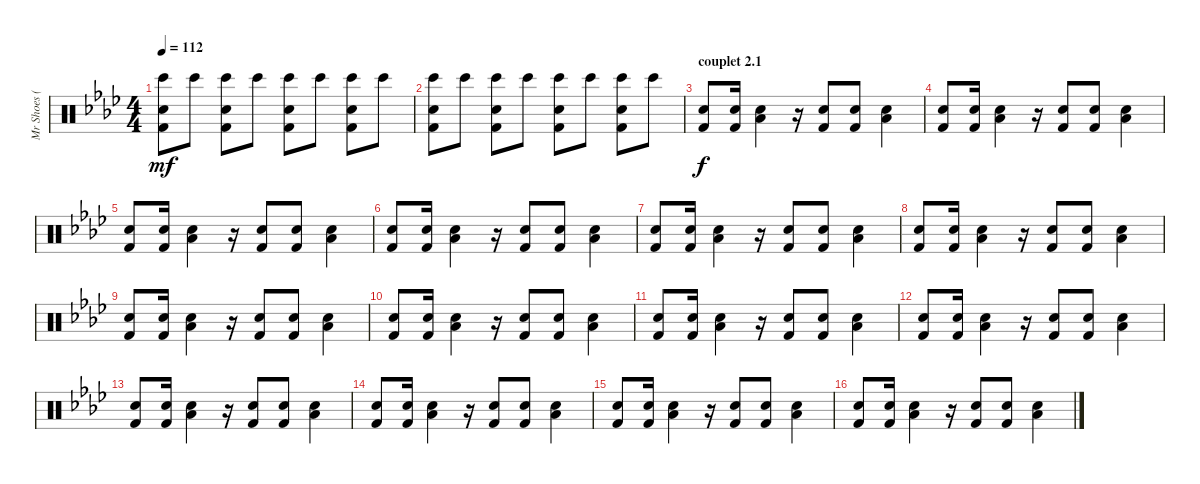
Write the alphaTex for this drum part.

\track ("Mr Shoes (batterie)" "Mr Shoes (") {instrument percussion}
\staff {score}
\articulation defaults
\ts (4 4)
\tempo 112
\clef neutral
\ks ab
("Snare (hit) 2" "Kick (hit) 2" "Bongo High (hit)").8{dy mf} "Bongo High (hit)".8 ("Snare (hit) 2" "Kick (hit) 2" "Bongo High (hit)").8 "Bongo High (hit)".8 ("Snare (hit) 2" "Kick (hit) 2" "Bongo High (hit)").8 "Bongo High (hit)".8 ("Snare (hit) 2" "Kick (hit) 2" "Bongo High (hit)").8 "Bongo High (hit)".8 |
("Snare (hit) 2" "Kick (hit) 2" "Bongo High (hit)").8 "Bongo High (hit)".8 ("Snare (hit) 2" "Kick (hit) 2" "Bongo High (hit)").8 "Bongo High (hit)".8 ("Snare (hit) 2" "Kick (hit) 2" "Bongo High (hit)").8 "Bongo High (hit)".8 ("Snare (hit) 2" "Kick (hit) 2" "Bongo High (hit)").8 "Bongo High (hit)".8 |
\section ("" "couplet 2.1")
("Snare (hit) 2" "Kick (hit) 2").8{dy f volume 14} ("Snare (hit) 2" "Kick (hit) 2").16 ("Snare (hit) 2" "Low Tom (hit)").4 r.16 ("Snare (hit) 2" "Kick (hit) 2").8 ("Snare (hit) 2" "Kick (hit) 2").8 ("Snare (hit) 2" "Low Tom (hit)").4 |
("Snare (hit) 2" "Kick (hit) 2").8 ("Snare (hit) 2" "Kick (hit) 2").16 ("Snare (hit) 2" "Low Tom (hit)").4 r.16 ("Snare (hit) 2" "Kick (hit) 2").8 ("Snare (hit) 2" "Kick (hit) 2").8 ("Snare (hit) 2" "Low Tom (hit)").4 |
("Snare (hit) 2" "Kick (hit) 2").8 ("Snare (hit) 2" "Kick (hit) 2").16 ("Snare (hit) 2" "Low Tom (hit)").4 r.16 ("Snare (hit) 2" "Kick (hit) 2").8 ("Snare (hit) 2" "Kick (hit) 2").8 ("Snare (hit) 2" "Low Tom (hit)").4 |
("Snare (hit) 2" "Kick (hit) 2").8 ("Snare (hit) 2" "Kick (hit) 2").16 ("Snare (hit) 2" "Low Tom (hit)").4 r.16 ("Snare (hit) 2" "Kick (hit) 2").8 ("Snare (hit) 2" "Kick (hit) 2").8 ("Snare (hit) 2" "Low Tom (hit)").4 |
("Snare (hit) 2" "Kick (hit) 2").8 ("Snare (hit) 2" "Kick (hit) 2").16 ("Snare (hit) 2" "Low Tom (hit)").4 r.16 ("Snare (hit) 2" "Kick (hit) 2").8 ("Snare (hit) 2" "Kick (hit) 2").8 ("Snare (hit) 2" "Low Tom (hit)").4 |
("Snare (hit) 2" "Kick (hit) 2").8 ("Snare (hit) 2" "Kick (hit) 2").16 ("Snare (hit) 2" "Low Tom (hit)").4 r.16 ("Snare (hit) 2" "Kick (hit) 2").8 ("Snare (hit) 2" "Kick (hit) 2").8 ("Snare (hit) 2" "Low Tom (hit)").4 |
("Snare (hit) 2" "Kick (hit) 2").8 ("Snare (hit) 2" "Kick (hit) 2").16 ("Snare (hit) 2" "Low Tom (hit)").4 r.16 ("Snare (hit) 2" "Kick (hit) 2").8 ("Snare (hit) 2" "Kick (hit) 2").8 ("Snare (hit) 2" "Low Tom (hit)").4 |
("Snare (hit) 2" "Kick (hit) 2").8 ("Snare (hit) 2" "Kick (hit) 2").16 ("Snare (hit) 2" "Low Tom (hit)").4 r.16 ("Snare (hit) 2" "Kick (hit) 2").8 ("Snare (hit) 2" "Kick (hit) 2").8 ("Snare (hit) 2" "Low Tom (hit)").4 |
("Snare (hit) 2" "Kick (hit) 2").8 ("Snare (hit) 2" "Kick (hit) 2").16 ("Snare (hit) 2" "Low Tom (hit)").4 r.16 ("Snare (hit) 2" "Kick (hit) 2").8 ("Snare (hit) 2" "Kick (hit) 2").8 ("Snare (hit) 2" "Low Tom (hit)").4 |
("Snare (hit) 2" "Kick (hit) 2").8 ("Snare (hit) 2" "Kick (hit) 2").16 ("Snare (hit) 2" "Low Tom (hit)").4 r.16 ("Snare (hit) 2" "Kick (hit) 2").8 ("Snare (hit) 2" "Kick (hit) 2").8 ("Snare (hit) 2" "Low Tom (hit)").4 |
("Snare (hit) 2" "Kick (hit) 2").8 ("Snare (hit) 2" "Kick (hit) 2").16 ("Snare (hit) 2" "Low Tom (hit)").4 r.16 ("Snare (hit) 2" "Kick (hit) 2").8 ("Snare (hit) 2" "Kick (hit) 2").8 ("Snare (hit) 2" "Low Tom (hit)").4 |
("Snare (hit) 2" "Kick (hit) 2").8 ("Snare (hit) 2" "Kick (hit) 2").16 ("Snare (hit) 2" "Low Tom (hit)").4 r.16 ("Snare (hit) 2" "Kick (hit) 2").8 ("Snare (hit) 2" "Kick (hit) 2").8 ("Snare (hit) 2" "Low Tom (hit)").4 |
("Snare (hit) 2" "Kick (hit) 2").8 ("Snare (hit) 2" "Kick (hit) 2").16 ("Snare (hit) 2" "Low Tom (hit)").4 r.16 ("Snare (hit) 2" "Kick (hit) 2").8 ("Snare (hit) 2" "Kick (hit) 2").8 ("Snare (hit) 2" "Low Tom (hit)").4 |
("Snare (hit) 2" "Kick (hit) 2").8 ("Snare (hit) 2" "Kick (hit) 2").16 ("Snare (hit) 2" "Low Tom (hit)").4 r.16 ("Snare (hit) 2" "Kick (hit) 2").8 ("Snare (hit) 2" "Kick (hit) 2").8 ("Snare (hit) 2" "Low Tom (hit)").4
